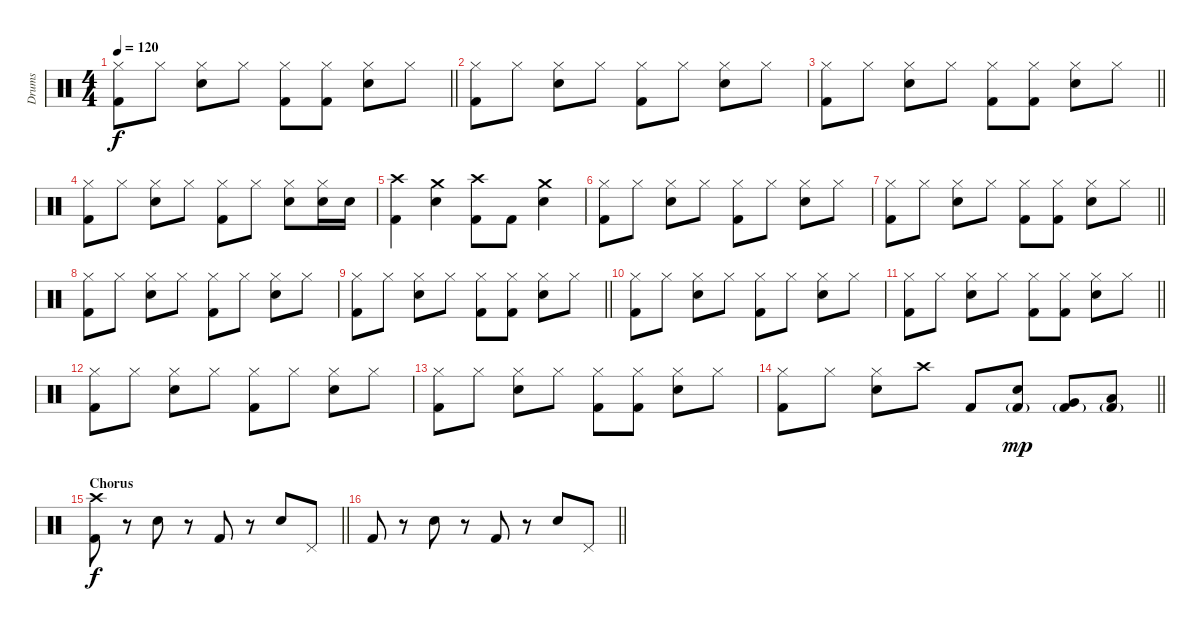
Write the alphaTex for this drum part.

\track ("Drums" "Drums") {instrument percussion}
\staff {score}
\articulation defaults
\ts (4 4)
\tempo 120
\clef neutral
\barLineRight lightlight
\ks c
("Hi-Hat (closed)" "Kick (hit) 2").8{dy f} "Hi-Hat (closed)".8 ("Hi-Hat (closed)" "Snare (hit) 2").8 "Hi-Hat (closed)".8 ("Hi-Hat (closed)" "Kick (hit) 2").8 ("Hi-Hat (closed)" "Kick (hit) 2").8 ("Hi-Hat (closed)" "Snare (hit) 2").8 "Hi-Hat (closed)".8 |
("Hi-Hat (closed)" "Kick (hit) 2").8 "Hi-Hat (closed)".8 ("Hi-Hat (closed)" "Snare (hit) 2").8 "Hi-Hat (closed)".8 ("Hi-Hat (closed)" "Kick (hit) 2").8 "Hi-Hat (closed)".8 ("Hi-Hat (closed)" "Snare (hit) 2").8 "Hi-Hat (closed)".8 |
\barLineRight lightlight
("Hi-Hat (closed)" "Kick (hit) 2").8 "Hi-Hat (closed)".8 ("Hi-Hat (closed)" "Snare (hit) 2").8 "Hi-Hat (closed)".8 ("Hi-Hat (closed)" "Kick (hit) 2").8 ("Hi-Hat (closed)" "Kick (hit) 2").8 ("Hi-Hat (closed)" "Snare (hit) 2").8 "Hi-Hat (closed)".8 |
("Hi-Hat (closed)" "Kick (hit) 2").8 "Hi-Hat (closed)".8 ("Hi-Hat (closed)" "Snare (hit) 2").8 "Hi-Hat (closed)".8 ("Hi-Hat (closed)" "Kick (hit) 2").8 "Hi-Hat (closed)".8 ("Hi-Hat (closed)" "Snare (hit) 2").8 ("Hi-Hat (closed)" "Snare (hit) 2").16 "Snare (hit) 2".16 |
("Crash high (hit)" "Kick (hit) 2").4 ("Crash medium (hit)" "Snare (hit) 2").4 ("Crash high (hit)" "Kick (hit) 2").8 "Kick (hit) 2".8 ("Crash medium (hit)" "Snare (hit) 2").4 |
("Hi-Hat (closed)" "Kick (hit) 2").8 "Hi-Hat (closed)".8 ("Hi-Hat (closed)" "Snare (hit) 2").8 "Hi-Hat (closed)".8 ("Hi-Hat (closed)" "Kick (hit) 2").8 "Hi-Hat (closed)".8 ("Hi-Hat (closed)" "Snare (hit) 2").8 "Hi-Hat (closed)".8 |
\barLineRight lightlight
("Hi-Hat (closed)" "Kick (hit) 2").8 "Hi-Hat (closed)".8 ("Hi-Hat (closed)" "Snare (hit) 2").8 "Hi-Hat (closed)".8 ("Hi-Hat (closed)" "Kick (hit) 2").8 ("Hi-Hat (closed)" "Kick (hit) 2").8 ("Hi-Hat (closed)" "Snare (hit) 2").8 "Hi-Hat (closed)".8 |
("Hi-Hat (closed)" "Kick (hit) 2").8 "Hi-Hat (closed)".8 ("Hi-Hat (closed)" "Snare (hit) 2").8 "Hi-Hat (closed)".8 ("Hi-Hat (closed)" "Kick (hit) 2").8 "Hi-Hat (closed)".8 ("Hi-Hat (closed)" "Snare (hit) 2").8 "Hi-Hat (closed)".8 |
\barLineRight lightlight
("Hi-Hat (closed)" "Kick (hit) 2").8 "Hi-Hat (closed)".8 ("Hi-Hat (closed)" "Snare (hit) 2").8 "Hi-Hat (closed)".8 ("Hi-Hat (closed)" "Kick (hit) 2").8 ("Hi-Hat (closed)" "Kick (hit) 2").8 ("Hi-Hat (closed)" "Snare (hit) 2").8 "Hi-Hat (closed)".8 |
("Hi-Hat (closed)" "Kick (hit) 2").8 "Hi-Hat (closed)".8 ("Hi-Hat (closed)" "Snare (hit) 2").8 "Hi-Hat (closed)".8 ("Hi-Hat (closed)" "Kick (hit) 2").8 "Hi-Hat (closed)".8 ("Hi-Hat (closed)" "Snare (hit) 2").8 "Hi-Hat (closed)".8 |
\barLineRight lightlight
("Hi-Hat (closed)" "Kick (hit) 2").8 "Hi-Hat (closed)".8 ("Hi-Hat (closed)" "Snare (hit) 2").8 "Hi-Hat (closed)".8 ("Hi-Hat (closed)" "Kick (hit) 2").8 ("Hi-Hat (closed)" "Kick (hit) 2").8 ("Hi-Hat (closed)" "Snare (hit) 2").8 "Hi-Hat (closed)".8 |
("Hi-Hat (closed)" "Kick (hit) 2").8 "Hi-Hat (closed)".8 ("Hi-Hat (closed)" "Snare (hit) 2").8 "Hi-Hat (closed)".8 ("Hi-Hat (closed)" "Kick (hit) 2").8 "Hi-Hat (closed)".8 ("Hi-Hat (closed)" "Snare (hit) 2").8 "Hi-Hat (closed)".8 |
("Hi-Hat (closed)" "Kick (hit) 2").8 "Hi-Hat (closed)".8 ("Hi-Hat (closed)" "Snare (hit) 2").8 "Hi-Hat (closed)".8 ("Hi-Hat (closed)" "Kick (hit) 2").8 ("Hi-Hat (closed)" "Kick (hit) 2").8 ("Hi-Hat (closed)" "Snare (hit) 2").8 "Hi-Hat (closed)".8 |
\barLineRight lightlight
("Hi-Hat (closed)" "Kick (hit) 2").8 "Hi-Hat (closed)".8 ("Hi-Hat (closed)" "Snare (hit) 2").8 "Crash high (hit)".8 "Kick (hit) 2".8 ("Snare (hit) 2" "Kick (hit) 2"{g}).8{dy mp} ("Very Low Tom (hit)" "Kick (hit) 2"{g}).8 ("Low Floor Tom (hit)" "Kick (hit) 2"{g}).8 |
\section ("" "Chorus")
\barLineRight lightlight
("Crash high (hit)" "Kick (hit) 2").8{dy f} r.8 "Snare (hit) 2".8 r.8 "Kick (hit) 2".8 r.8 "Snare (hit) 2".8 "Pedal Hi-Hat (hit)".8 |
\barLineRight lightlight "Kick (hit) 2".8
r.8 "Snare (hit) 2".8 r.8 "Kick (hit) 2".8 r.8 "Snare (hit) 2".8 "Pedal Hi-Hat (hit)".8
